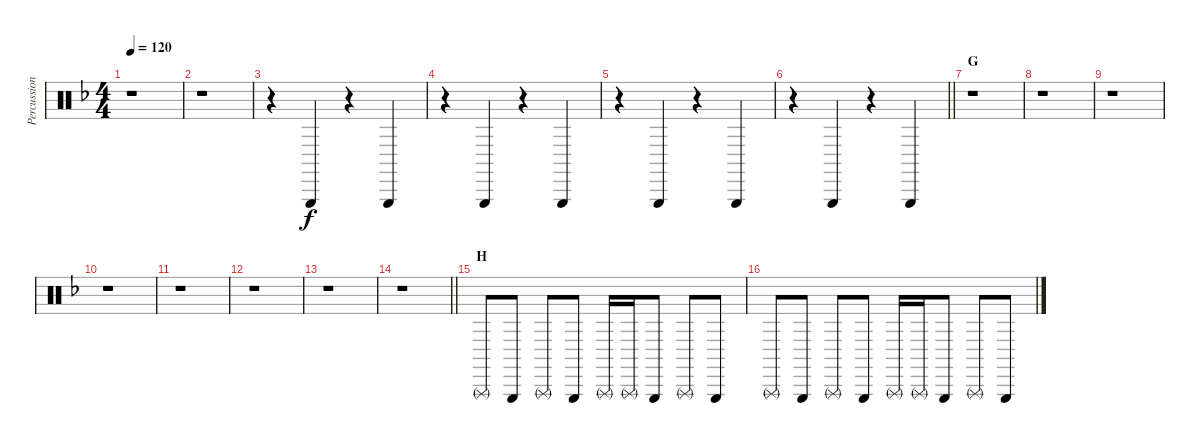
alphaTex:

\track ("Percussion" "Percussion") {instrument percussion}
\staff {score}
\articulation defaults
\ts (4 4)
\tempo 120
\clef neutral
\ks f
r.1{dy f} |
r.1 |
r.4 "Triangle (hit)".4 r.4 "Triangle (hit)".4 |
r.4 "Triangle (hit)".4 r.4 "Triangle (hit)".4 |
r.4 "Triangle (hit)".4 r.4 "Triangle (hit)".4 |
\barLineRight lightlight
r.4 "Triangle (hit)".4 r.4 "Triangle (hit)".4 |
\section ("" "G")
r.1 |
r.1 |
r.1 |
r.1 |
r.1 |
r.1 |
r.1 |
\barLineRight lightlight
r.1 |
\section ("" "H")
"Triangle (rnute)".8 "Triangle (hit)".8 "Triangle (rnute)".8 "Triangle (hit)".8 "Triangle (rnute)".16 "Triangle (rnute)".16 "Triangle (hit)".8 "Triangle (rnute)".8 "Triangle (hit)".8 |
"Triangle (rnute)".8 "Triangle (hit)".8 "Triangle (rnute)".8 "Triangle (hit)".8 "Triangle (rnute)".16 "Triangle (rnute)".16 "Triangle (hit)".8 "Triangle (rnute)".8 "Triangle (hit)".8
